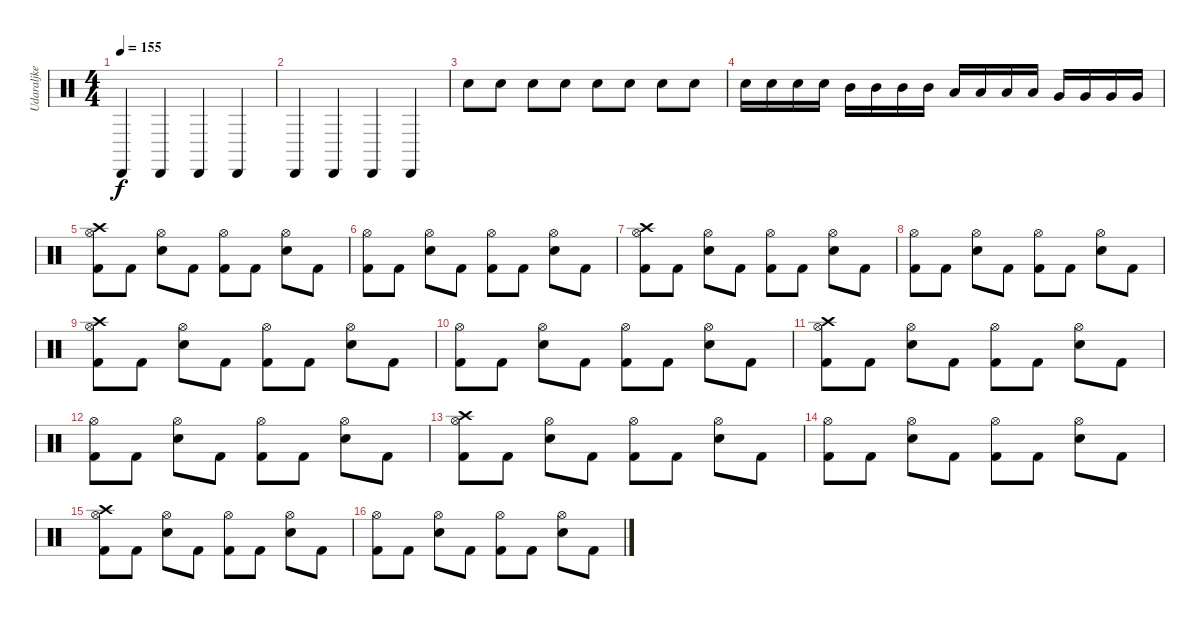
\track ("Udaraljke" "Udaraljke") {instrument percussion}
\staff {score}
\articulation defaults
\ts (4 4)
\tempo 155
\clef neutral
\ks c "Cabasa (hit)".4{dy f} "Cabasa (hit)".4 "Cabasa (hit)".4 "Cabasa (hit)".4
|
"Cabasa (hit)".4 "Cabasa (hit)".4 "Cabasa (hit)".4 "Cabasa (hit)".4 |
"Snare (hit) 2".8 "Snare (hit) 2".8 "Snare (hit) 2".8 "Snare (hit) 2".8 "Snare (hit) 2".8 "Snare (hit) 2".8 "Snare (hit) 2".8 "Snare (hit) 2".8 |
"Snare (hit) 2".16 "Snare (hit) 2".16 "Snare (hit) 2".16 "Snare (hit) 2".16 "Mid Tom (hit)".16 "Mid Tom (hit)".16 "Mid Tom (hit)".16 "Mid Tom (hit)".16 "Low Tom (hit)".16 "Low Tom (hit)".16 "Low Tom (hit)".16 "Low Tom (hit)".16 "Very Low Tom (hit)".16 "Very Low Tom (hit)".16 "Very Low Tom (hit)".16 "Very Low Tom (hit)".16 |
("Hi-Hat (open)" "Kick (hit) 2" "Crash high (hit)").8 "Kick (hit) 2".8 ("Hi-Hat (open)" "Electric Snare (hit)").8 "Kick (hit) 2".8 ("Hi-Hat (open)" "Kick (hit) 2").8 "Kick (hit) 2".8 ("Hi-Hat (open)" "Electric Snare (hit)").8 "Kick (hit) 2".8 |
("Hi-Hat (open)" "Kick (hit) 2").8 "Kick (hit) 2".8 ("Hi-Hat (open)" "Electric Snare (hit)").8 "Kick (hit) 2".8 ("Hi-Hat (open)" "Kick (hit) 2").8 "Kick (hit) 2".8 ("Hi-Hat (open)" "Electric Snare (hit)").8 "Kick (hit) 2".8 |
("Hi-Hat (open)" "Kick (hit) 2" "Crash high (hit)").8 "Kick (hit) 2".8 ("Hi-Hat (open)" "Electric Snare (hit)").8 "Kick (hit) 2".8 ("Hi-Hat (open)" "Kick (hit) 2").8 "Kick (hit) 2".8 ("Hi-Hat (open)" "Electric Snare (hit)").8 "Kick (hit) 2".8 |
("Hi-Hat (open)" "Kick (hit) 2").8 "Kick (hit) 2".8 ("Hi-Hat (open)" "Electric Snare (hit)").8 "Kick (hit) 2".8 ("Hi-Hat (open)" "Kick (hit) 2").8 "Kick (hit) 2".8 ("Hi-Hat (open)" "Electric Snare (hit)").8 "Kick (hit) 2".8 |
("Hi-Hat (open)" "Kick (hit) 2" "Crash high (hit)").8 "Kick (hit) 2".8 ("Hi-Hat (open)" "Electric Snare (hit)").8 "Kick (hit) 2".8 ("Hi-Hat (open)" "Kick (hit) 2").8 "Kick (hit) 2".8 ("Hi-Hat (open)" "Electric Snare (hit)").8 "Kick (hit) 2".8 |
("Hi-Hat (open)" "Kick (hit) 2").8 "Kick (hit) 2".8 ("Hi-Hat (open)" "Electric Snare (hit)").8 "Kick (hit) 2".8 ("Hi-Hat (open)" "Kick (hit) 2").8 "Kick (hit) 2".8 ("Hi-Hat (open)" "Electric Snare (hit)").8 "Kick (hit) 2".8 |
("Hi-Hat (open)" "Kick (hit) 2" "Crash high (hit)").8 "Kick (hit) 2".8 ("Hi-Hat (open)" "Electric Snare (hit)").8 "Kick (hit) 2".8 ("Hi-Hat (open)" "Kick (hit) 2").8 "Kick (hit) 2".8 ("Hi-Hat (open)" "Electric Snare (hit)").8 "Kick (hit) 2".8 |
("Hi-Hat (open)" "Kick (hit) 2").8 "Kick (hit) 2".8 ("Hi-Hat (open)" "Electric Snare (hit)").8 "Kick (hit) 2".8 ("Hi-Hat (open)" "Kick (hit) 2").8 "Kick (hit) 2".8 ("Hi-Hat (open)" "Electric Snare (hit)").8 "Kick (hit) 2".8 |
("Hi-Hat (open)" "Kick (hit) 2" "Crash high (hit)").8 "Kick (hit) 2".8 ("Hi-Hat (open)" "Electric Snare (hit)").8 "Kick (hit) 2".8 ("Hi-Hat (open)" "Kick (hit) 2").8 "Kick (hit) 2".8 ("Hi-Hat (open)" "Electric Snare (hit)").8 "Kick (hit) 2".8 |
("Hi-Hat (open)" "Kick (hit) 2").8 "Kick (hit) 2".8 ("Hi-Hat (open)" "Electric Snare (hit)").8 "Kick (hit) 2".8 ("Hi-Hat (open)" "Kick (hit) 2").8 "Kick (hit) 2".8 ("Hi-Hat (open)" "Electric Snare (hit)").8 "Kick (hit) 2".8 |
("Hi-Hat (open)" "Kick (hit) 2" "Crash high (hit)").8 "Kick (hit) 2".8 ("Hi-Hat (open)" "Electric Snare (hit)").8 "Kick (hit) 2".8 ("Hi-Hat (open)" "Kick (hit) 2").8 "Kick (hit) 2".8 ("Hi-Hat (open)" "Electric Snare (hit)").8 "Kick (hit) 2".8 |
("Hi-Hat (open)" "Kick (hit) 2").8 "Kick (hit) 2".8 ("Hi-Hat (open)" "Electric Snare (hit)").8 "Kick (hit) 2".8 ("Hi-Hat (open)" "Kick (hit) 2").8 "Kick (hit) 2".8 ("Hi-Hat (open)" "Electric Snare (hit)").8 "Kick (hit) 2".8
